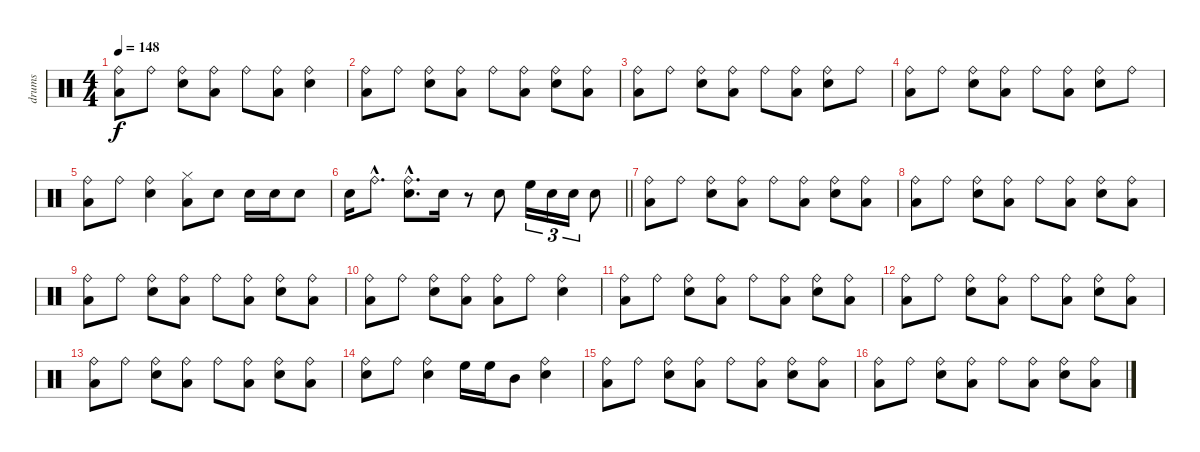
\track ("drums" "drums") {instrument percussion}
\staff {score}
\articulation defaults
\ts (4 4)
\tempo 148
\clef neutral
\ks c
("Ride (bell)" "Low Floor Tom (hit)").8{dy f} "Ride (bell)".8 ("Ride (bell)" "Electric Snare (hit)").8 ("Ride (bell)" "Low Floor Tom (hit)").8 "Ride (bell)".8 ("Ride (bell)" "Low Floor Tom (hit)").8 ("Ride (bell)" "Electric Snare (hit)").4 |
("Ride (bell)" "Low Floor Tom (hit)").8 "Ride (bell)".8 ("Ride (bell)" "Electric Snare (hit)").8 ("Ride (bell)" "Low Floor Tom (hit)").8 "Ride (bell)".8 ("Ride (bell)" "Low Floor Tom (hit)").8 ("Ride (bell)" "Electric Snare (hit)").8 ("Ride (bell)" "Low Floor Tom (hit)").8 |
("Ride (bell)" "Low Floor Tom (hit)").8 "Ride (bell)".8 ("Ride (bell)" "Electric Snare (hit)").8 ("Ride (bell)" "Low Floor Tom (hit)").8 "Ride (bell)".8 ("Ride (bell)" "Low Floor Tom (hit)").8 ("Ride (bell)" "Electric Snare (hit)").8 "Ride (bell)".8 |
("Ride (bell)" "Low Floor Tom (hit)").8 "Ride (bell)".8 ("Ride (bell)" "Electric Snare (hit)").8 ("Ride (bell)" "Low Floor Tom (hit)").8 "Ride (bell)".8 ("Ride (bell)" "Low Floor Tom (hit)").8 ("Ride (bell)" "Electric Snare (hit)").8 "Ride (bell)".8 |
("Ride (bell)" "Low Floor Tom (hit)").8 "Ride (bell)".8 ("Ride (bell)" "Electric Snare (hit)").4 ("Hi-Hat (closed)" "Low Floor Tom (hit)").8 "Electric Snare (hit)".8 "Electric Snare (hit)".16 "Electric Snare (hit)".16 "Electric Snare (hit)".8 |
\barLineRight lightlight "Electric Snare (hit)".16 "Ride (bell)"{hac}.8{d}
("Ride (bell)"{hac} "Electric Snare (hit)"{hac}).8{d} "Electric Snare (hit)".16 r.8 "Electric Snare (hit)".8 "High Floor Tom (hit)".16{tu (3 2)} "Electric Snare (hit)".16{tu (3 2)} "Electric Snare (hit)".16{tu (3 2)} "Electric Snare (hit)".8 |
("Ride (bell)" "Low Floor Tom (hit)").8 "Ride (bell)".8 ("Ride (bell)" "Electric Snare (hit)").8 ("Ride (bell)" "Low Floor Tom (hit)").8 "Ride (bell)".8 ("Ride (bell)" "Low Floor Tom (hit)").8 ("Ride (bell)" "Electric Snare (hit)").8 ("Ride (bell)" "Low Floor Tom (hit)").8 |
("Ride (bell)" "Low Floor Tom (hit)").8 "Ride (bell)".8 ("Ride (bell)" "Electric Snare (hit)").8 ("Ride (bell)" "Low Floor Tom (hit)").8 "Ride (bell)".8 ("Ride (bell)" "Low Floor Tom (hit)").8 ("Ride (bell)" "Electric Snare (hit)").8 ("Ride (bell)" "Low Floor Tom (hit)").8 |
("Ride (bell)" "Low Floor Tom (hit)").8 "Ride (bell)".8 ("Ride (bell)" "Electric Snare (hit)").8 ("Ride (bell)" "Low Floor Tom (hit)").8 "Ride (bell)".8 ("Ride (bell)" "Low Floor Tom (hit)").8 ("Ride (bell)" "Electric Snare (hit)").8 ("Ride (bell)" "Low Floor Tom (hit)").8 |
("Ride (bell)" "Low Floor Tom (hit)").8 "Ride (bell)".8 ("Ride (bell)" "Electric Snare (hit)").8 ("Ride (bell)" "Low Floor Tom (hit)").8 ("Ride (bell)" "Low Floor Tom (hit)").8 "Ride (bell)".8 ("Ride (bell)" "Electric Snare (hit)").4 |
("Ride (bell)" "Low Floor Tom (hit)").8 "Ride (bell)".8 ("Ride (bell)" "Electric Snare (hit)").8 ("Ride (bell)" "Low Floor Tom (hit)").8 "Ride (bell)".8 ("Ride (bell)" "Low Floor Tom (hit)").8 ("Ride (bell)" "Electric Snare (hit)").8 ("Ride (bell)" "Low Floor Tom (hit)").8 |
("Ride (bell)" "Low Floor Tom (hit)").8 "Ride (bell)".8 ("Ride (bell)" "Electric Snare (hit)").8 ("Ride (bell)" "Low Floor Tom (hit)").8 "Ride (bell)".8 ("Ride (bell)" "Low Floor Tom (hit)").8 ("Ride (bell)" "Electric Snare (hit)").8 ("Ride (bell)" "Low Floor Tom (hit)").8 |
("Ride (bell)" "Low Floor Tom (hit)").8 "Ride (bell)".8 ("Ride (bell)" "Electric Snare (hit)").8 ("Ride (bell)" "Low Floor Tom (hit)").8 "Ride (bell)".8 ("Ride (bell)" "Low Floor Tom (hit)").8 ("Ride (bell)" "Electric Snare (hit)").8 ("Ride (bell)" "Low Floor Tom (hit)").8 |
("Ride (bell)" "Electric Snare (hit)").8 "Ride (bell)".8 ("Ride (bell)" "Electric Snare (hit)").4 "High Floor Tom (hit)".16 "High Floor Tom (hit)".16 "Mid Tom (hit)".8 ("Ride (bell)" "Electric Snare (hit)").4 |
("Ride (bell)" "Low Floor Tom (hit)").8 "Ride (bell)".8 ("Ride (bell)" "Electric Snare (hit)").8 ("Ride (bell)" "Low Floor Tom (hit)").8 "Ride (bell)".8 ("Ride (bell)" "Low Floor Tom (hit)").8 ("Ride (bell)" "Electric Snare (hit)").8 ("Ride (bell)" "Low Floor Tom (hit)").8 |
("Ride (bell)" "Low Floor Tom (hit)").8 "Ride (bell)".8 ("Ride (bell)" "Electric Snare (hit)").8 ("Ride (bell)" "Low Floor Tom (hit)").8 "Ride (bell)".8 ("Ride (bell)" "Low Floor Tom (hit)").8 ("Ride (bell)" "Electric Snare (hit)").8 ("Ride (bell)" "Low Floor Tom (hit)").8
